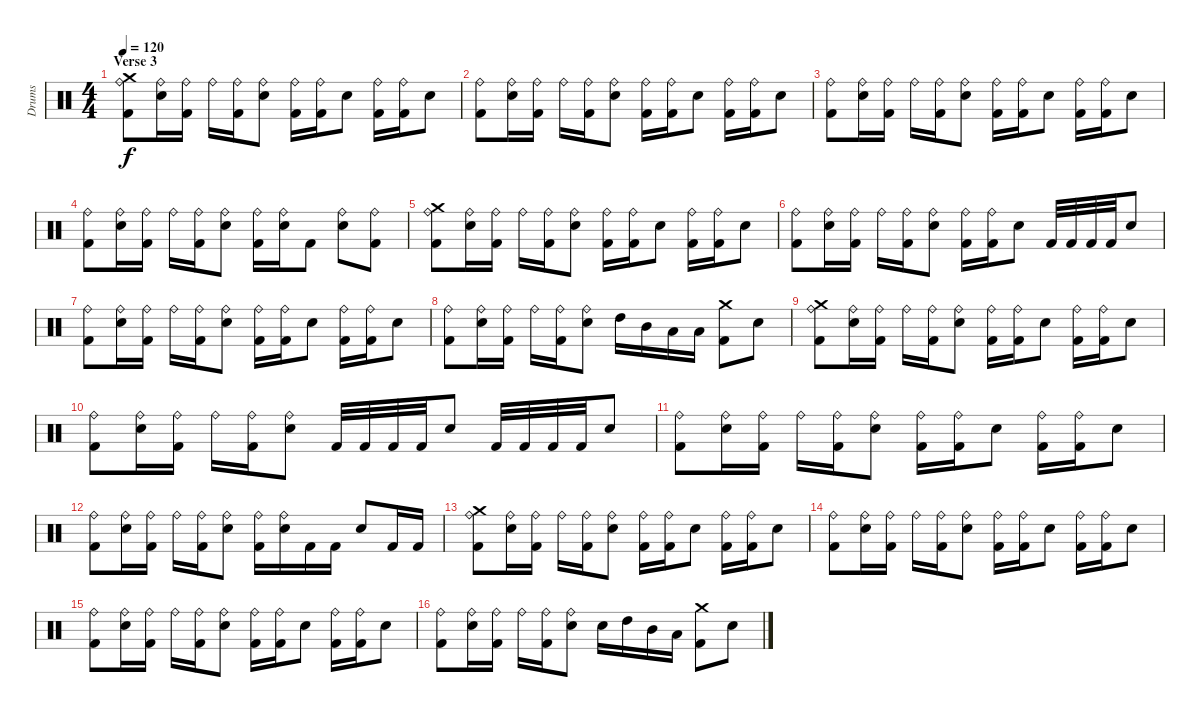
\track ("Drums" "Drums") {instrument percussion}
\staff {score}
\articulation defaults
\ts (4 4)
\section ("" "Verse 3")
\tempo 120
\clef neutral
\ks c
("Crash medium (hit)" "Kick (hit) 2" "Ride (bell)").8{dy f} ("Snare (hit) 2" "Ride (bell)").16 ("Kick (hit) 2" "Ride (bell)").16 "Ride (bell)".16 ("Kick (hit) 2" "Ride (bell)").16 ("Snare (hit) 2" "Ride (bell)").8 ("Kick (hit) 2" "Ride (bell)").16 ("Kick (hit) 2" "Ride (bell)").16 "Snare (hit) 2".8 ("Kick (hit) 2" "Ride (bell)").16 ("Kick (hit) 2" "Ride (bell)").16 "Snare (hit) 2".8 |
("Kick (hit) 2" "Ride (bell)").8 ("Snare (hit) 2" "Ride (bell)").16 ("Kick (hit) 2" "Ride (bell)").16 "Ride (bell)".16 ("Kick (hit) 2" "Ride (bell)").16 ("Snare (hit) 2" "Ride (bell)").8 ("Kick (hit) 2" "Ride (bell)").16 ("Kick (hit) 2" "Ride (bell)").16 "Snare (hit) 2".8 ("Kick (hit) 2" "Ride (bell)").16 ("Kick (hit) 2" "Ride (bell)").16 "Snare (hit) 2".8 |
("Kick (hit) 2" "Ride (bell)").8 ("Snare (hit) 2" "Ride (bell)").16 ("Kick (hit) 2" "Ride (bell)").16 "Ride (bell)".16 ("Kick (hit) 2" "Ride (bell)").16 ("Snare (hit) 2" "Ride (bell)").8 ("Kick (hit) 2" "Ride (bell)").16 ("Kick (hit) 2" "Ride (bell)").16 "Snare (hit) 2".8 ("Kick (hit) 2" "Ride (bell)").16 ("Kick (hit) 2" "Ride (bell)").16 "Snare (hit) 2".8 |
("Kick (hit) 2" "Ride (bell)").8 ("Snare (hit) 2" "Ride (bell)").16 ("Kick (hit) 2" "Ride (bell)").16 "Ride (bell)".16 ("Kick (hit) 2" "Ride (bell)").16 ("Snare (hit) 2" "Ride (bell)").8 ("Kick (hit) 2" "Ride (bell)").16 ("Snare (hit) 2" "Ride (bell)").16 "Kick (hit) 2".8 ("Snare (hit) 2" "Ride (bell)").8 ("Kick (hit) 2" "Ride (bell)").8 |
("Crash medium (hit)" "Kick (hit) 2" "Ride (bell)").8 ("Snare (hit) 2" "Ride (bell)").16 ("Kick (hit) 2" "Ride (bell)").16 "Ride (bell)".16 ("Kick (hit) 2" "Ride (bell)").16 ("Snare (hit) 2" "Ride (bell)").8 ("Kick (hit) 2" "Ride (bell)").16 ("Kick (hit) 2" "Ride (bell)").16 "Snare (hit) 2".8 ("Kick (hit) 2" "Ride (bell)").16 ("Kick (hit) 2" "Ride (bell)").16 "Snare (hit) 2".8 |
("Kick (hit) 2" "Ride (bell)").8 ("Snare (hit) 2" "Ride (bell)").16 ("Kick (hit) 2" "Ride (bell)").16 "Ride (bell)".16 ("Kick (hit) 2" "Ride (bell)").16 ("Snare (hit) 2" "Ride (bell)").8 ("Kick (hit) 2" "Ride (bell)").16 ("Kick (hit) 2" "Ride (bell)").16 "Snare (hit) 2".8 "Kick (hit) 2".32 "Kick (hit) 2".32 "Kick (hit) 2".32 "Kick (hit) 2".32 "Snare (hit) 2".8 |
("Kick (hit) 2" "Ride (bell)").8 ("Snare (hit) 2" "Ride (bell)").16 ("Kick (hit) 2" "Ride (bell)").16 "Ride (bell)".16 ("Kick (hit) 2" "Ride (bell)").16 ("Snare (hit) 2" "Ride (bell)").8 ("Kick (hit) 2" "Ride (bell)").16 ("Kick (hit) 2" "Ride (bell)").16 "Snare (hit) 2".8 ("Kick (hit) 2" "Ride (bell)").16 ("Kick (hit) 2" "Ride (bell)").16 "Snare (hit) 2".8 |
("Kick (hit) 2" "Ride (bell)").8 ("Snare (hit) 2" "Ride (bell)").16 ("Kick (hit) 2" "Ride (bell)").16 "Ride (bell)".16 ("Kick (hit) 2" "Ride (bell)").16 ("Snare (hit) 2" "Ride (bell)").8 "High Tom (hit)".16 "Mid Tom (hit)".16 "Low Tom (hit)".16 "Low Tom (hit)".16 ("Crash medium (hit)" "Kick (hit) 2").8 "Snare (hit) 2".8 |
("Crash medium (hit)" "Kick (hit) 2" "Ride (bell)").8 ("Snare (hit) 2" "Ride (bell)").16 ("Kick (hit) 2" "Ride (bell)").16 "Ride (bell)".16 ("Kick (hit) 2" "Ride (bell)").16 ("Snare (hit) 2" "Ride (bell)").8 ("Kick (hit) 2" "Ride (bell)").16 ("Kick (hit) 2" "Ride (bell)").16 "Snare (hit) 2".8 ("Kick (hit) 2" "Ride (bell)").16 ("Kick (hit) 2" "Ride (bell)").16 "Snare (hit) 2".8 |
("Kick (hit) 2" "Ride (bell)").8 ("Snare (hit) 2" "Ride (bell)").16 ("Kick (hit) 2" "Ride (bell)").16 "Ride (bell)".16 ("Kick (hit) 2" "Ride (bell)").16 ("Snare (hit) 2" "Ride (bell)").8 "Kick (hit) 2".32 "Kick (hit) 2".32 "Kick (hit) 2".32 "Kick (hit) 2".32 "Snare (hit) 2".8 "Kick (hit) 2".32 "Kick (hit) 2".32 "Kick (hit) 2".32 "Kick (hit) 2".32 "Snare (hit) 2".8 |
("Kick (hit) 2" "Ride (bell)").8 ("Snare (hit) 2" "Ride (bell)").16 ("Kick (hit) 2" "Ride (bell)").16 "Ride (bell)".16 ("Kick (hit) 2" "Ride (bell)").16 ("Snare (hit) 2" "Ride (bell)").8 ("Kick (hit) 2" "Ride (bell)").16 ("Kick (hit) 2" "Ride (bell)").16 "Snare (hit) 2".8 ("Kick (hit) 2" "Ride (bell)").16 ("Kick (hit) 2" "Ride (bell)").16 "Snare (hit) 2".8 |
("Kick (hit) 2" "Ride (bell)").8 ("Snare (hit) 2" "Ride (bell)").16 ("Kick (hit) 2" "Ride (bell)").16 "Ride (bell)".16 ("Kick (hit) 2" "Ride (bell)").16 ("Snare (hit) 2" "Ride (bell)").8 ("Kick (hit) 2" "Ride (bell)").16 ("Snare (hit) 2" "Ride (bell)").16 "Kick (hit) 2".16 "Kick (hit) 2".16 "Snare (hit) 2".8 "Kick (hit) 2".16 "Kick (hit) 2".16 |
("Crash medium (hit)" "Kick (hit) 2" "Ride (bell)").8 ("Snare (hit) 2" "Ride (bell)").16 ("Kick (hit) 2" "Ride (bell)").16 "Ride (bell)".16 ("Kick (hit) 2" "Ride (bell)").16 ("Snare (hit) 2" "Ride (bell)").8 ("Kick (hit) 2" "Ride (bell)").16 ("Kick (hit) 2" "Ride (bell)").16 "Snare (hit) 2".8 ("Kick (hit) 2" "Ride (bell)").16 ("Kick (hit) 2" "Ride (bell)").16 "Snare (hit) 2".8 |
("Kick (hit) 2" "Ride (bell)").8 ("Snare (hit) 2" "Ride (bell)").16 ("Kick (hit) 2" "Ride (bell)").16 "Ride (bell)".16 ("Kick (hit) 2" "Ride (bell)").16 ("Snare (hit) 2" "Ride (bell)").8 ("Kick (hit) 2" "Ride (bell)").16 ("Kick (hit) 2" "Ride (bell)").16 "Snare (hit) 2".8 ("Kick (hit) 2" "Ride (bell)").16 ("Kick (hit) 2" "Ride (bell)").16 "Snare (hit) 2".8 |
("Kick (hit) 2" "Ride (bell)").8 ("Snare (hit) 2" "Ride (bell)").16 ("Kick (hit) 2" "Ride (bell)").16 "Ride (bell)".16 ("Kick (hit) 2" "Ride (bell)").16 ("Snare (hit) 2" "Ride (bell)").8 ("Kick (hit) 2" "Ride (bell)").16 ("Kick (hit) 2" "Ride (bell)").16 "Snare (hit) 2".8 ("Kick (hit) 2" "Ride (bell)").16 ("Kick (hit) 2" "Ride (bell)").16 "Snare (hit) 2".8 |
("Kick (hit) 2" "Ride (bell)").8 ("Snare (hit) 2" "Ride (bell)").16 ("Kick (hit) 2" "Ride (bell)").16 "Ride (bell)".16 ("Kick (hit) 2" "Ride (bell)").16 ("Snare (hit) 2" "Ride (bell)").8 "Snare (hit) 2".16 "High Tom (hit)".16 "Mid Tom (hit)".16 "Low Tom (hit)".16 ("Crash medium (hit)" "Kick (hit) 2").8 "Snare (hit) 2".8
